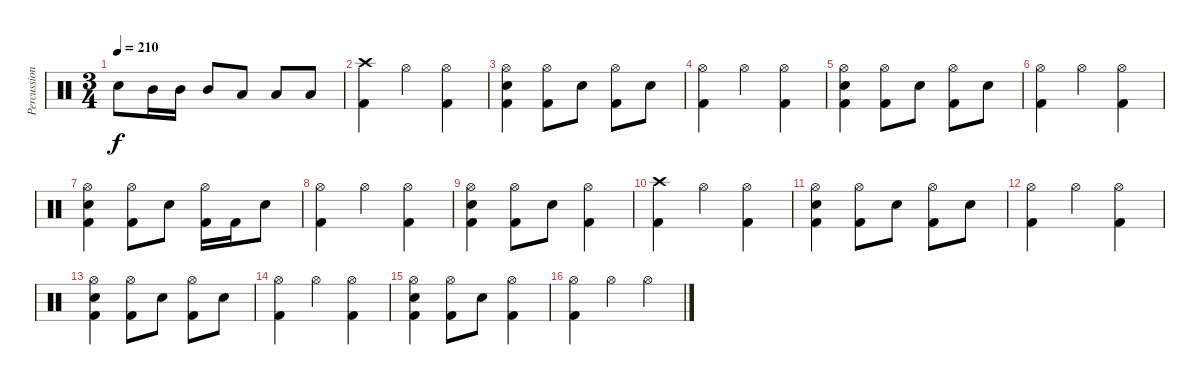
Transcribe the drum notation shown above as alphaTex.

\track ("Percussion" "Percussion") {instrument percussion}
\staff {score}
\articulation defaults
\ts (3 4)
\tempo 210
\clef neutral
\ks c "Electric Snare (hit)".8{dy f} "Mid Tom (hit)".16 "Mid Tom (hit)".16 "Mid Tom (hit)".8 "Low Tom (hit)".8 "Low Tom (hit)".8 "Low Tom (hit)".8
|
("Crash high (hit)" "Kick (hit) 2").4 "Hi-Hat (open)".4 ("Hi-Hat (open)" "Kick (hit) 2").4 |
("Hi-Hat (open)" "Electric Snare (hit)" "Kick (hit) 2").4 ("Hi-Hat (open)" "Kick (hit) 2").8 "Electric Snare (hit)".8 ("Hi-Hat (open)" "Kick (hit) 2").8 "Electric Snare (hit)".8 |
("Hi-Hat (open)" "Kick (hit) 2").4 "Hi-Hat (open)".4 ("Hi-Hat (open)" "Kick (hit) 2").4 |
("Hi-Hat (open)" "Electric Snare (hit)" "Kick (hit) 2").4 ("Hi-Hat (open)" "Kick (hit) 2").8 "Electric Snare (hit)".8 ("Hi-Hat (open)" "Kick (hit) 2").8 "Electric Snare (hit)".8 |
("Hi-Hat (open)" "Kick (hit) 2").4 "Hi-Hat (open)".4 ("Hi-Hat (open)" "Kick (hit) 2").4 |
("Hi-Hat (open)" "Electric Snare (hit)" "Kick (hit) 2").4 ("Hi-Hat (open)" "Kick (hit) 2").8 "Electric Snare (hit)".8 ("Hi-Hat (open)" "Kick (hit) 2").16 "Kick (hit) 2".16 "Electric Snare (hit)".8 |
("Hi-Hat (open)" "Kick (hit) 2").4 "Hi-Hat (open)".4 ("Hi-Hat (open)" "Kick (hit) 2").4 |
("Hi-Hat (open)" "Electric Snare (hit)" "Kick (hit) 2").4 ("Hi-Hat (open)" "Kick (hit) 2").8 "Electric Snare (hit)".8 ("Hi-Hat (open)" "Kick (hit) 2").4 |
("Crash high (hit)" "Kick (hit) 2").4 "Hi-Hat (open)".4 ("Hi-Hat (open)" "Kick (hit) 2").4 |
("Hi-Hat (open)" "Electric Snare (hit)" "Kick (hit) 2").4 ("Hi-Hat (open)" "Kick (hit) 2").8 "Electric Snare (hit)".8 ("Hi-Hat (open)" "Kick (hit) 2").8 "Electric Snare (hit)".8 |
("Hi-Hat (open)" "Kick (hit) 2").4 "Hi-Hat (open)".4 ("Hi-Hat (open)" "Kick (hit) 2").4 |
("Hi-Hat (open)" "Electric Snare (hit)" "Kick (hit) 2").4 ("Hi-Hat (open)" "Kick (hit) 2").8 "Electric Snare (hit)".8 ("Hi-Hat (open)" "Kick (hit) 2").8 "Electric Snare (hit)".8 |
("Hi-Hat (open)" "Kick (hit) 2").4 "Hi-Hat (open)".4 ("Hi-Hat (open)" "Kick (hit) 2").4 |
("Hi-Hat (open)" "Electric Snare (hit)" "Kick (hit) 2").4 ("Hi-Hat (open)" "Kick (hit) 2").8 "Electric Snare (hit)".8 ("Hi-Hat (open)" "Kick (hit) 2").4 |
("Hi-Hat (open)" "Kick (hit) 2").4 "Hi-Hat (open)".4 "Hi-Hat (open)".4
